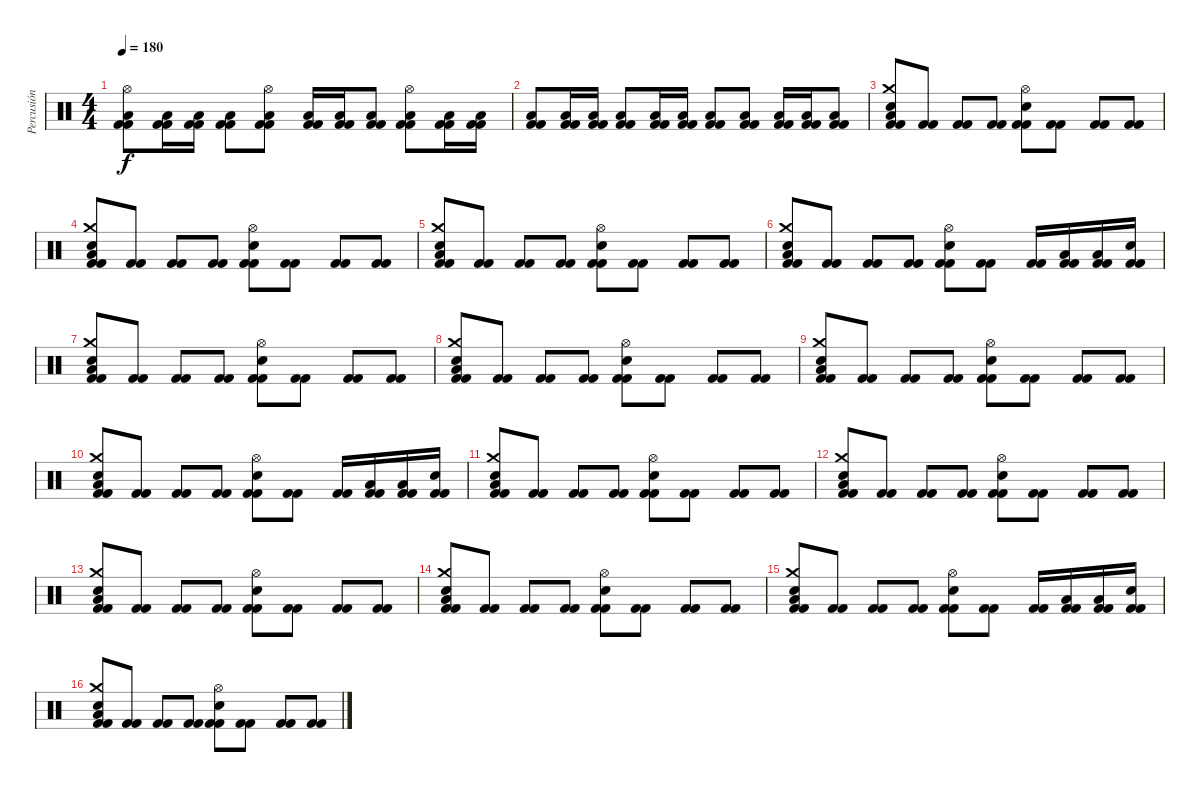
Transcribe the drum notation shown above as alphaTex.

\track ("Percusión" "Percusión") {instrument percussion}
\staff {score}
\articulation defaults
\ts (4 4)
\tempo 180
\clef neutral
\ks c
("Hi-Hat (open)" "Kick (hit) 2" "Kick (hit) 2" "Low Floor Tom (hit)").8{dy f} ("Kick (hit) 2" "Kick (hit) 2" "Low Floor Tom (hit)").16 ("Kick (hit) 2" "Kick (hit) 2" "Low Floor Tom (hit)").16 ("Kick (hit) 2" "Kick (hit) 2" "Low Floor Tom (hit)").8 ("Hi-Hat (open)" "Kick (hit) 2" "Kick (hit) 2" "Low Floor Tom (hit)").8 ("Kick (hit) 2" "Kick (hit) 2" "Low Floor Tom (hit)").16 ("Kick (hit) 2" "Kick (hit) 2" "Low Floor Tom (hit)").16 ("Kick (hit) 2" "Kick (hit) 2" "Low Floor Tom (hit)").8 ("Hi-Hat (open)" "Kick (hit) 2" "Kick (hit) 2" "Low Floor Tom (hit)").8 ("Kick (hit) 2" "Kick (hit) 2" "Low Floor Tom (hit)").16 ("Kick (hit) 2" "Kick (hit) 2" "Low Floor Tom (hit)").16 |
("Kick (hit) 2" "Kick (hit) 2" "Low Floor Tom (hit)").8 ("Kick (hit) 2" "Kick (hit) 2" "Low Floor Tom (hit)").16 ("Kick (hit) 2" "Kick (hit) 2" "Low Floor Tom (hit)").16 ("Kick (hit) 2" "Kick (hit) 2" "Low Floor Tom (hit)").8 ("Kick (hit) 2" "Kick (hit) 2" "Low Floor Tom (hit)").16 ("Kick (hit) 2" "Kick (hit) 2" "Low Floor Tom (hit)").16 ("Kick (hit) 2" "Kick (hit) 2" "Low Floor Tom (hit)").8 ("Kick (hit) 2" "Kick (hit) 2" "Low Floor Tom (hit)").8 ("Kick (hit) 2" "Kick (hit) 2" "Low Floor Tom (hit)").16 ("Kick (hit) 2" "Kick (hit) 2" "Low Floor Tom (hit)").16 ("Kick (hit) 2" "Kick (hit) 2" "Low Floor Tom (hit)").8 |
("Crash medium (hit)" "Kick (hit) 2" "Kick (hit) 2" "Snare (hit) 2" "Low Floor Tom (hit)").8 ("Kick (hit) 2" "Kick (hit) 2").8 ("Kick (hit) 2" "Kick (hit) 2").8 ("Kick (hit) 2" "Kick (hit) 2").8 ("Hi-Hat (open)" "Kick (hit) 2" "Kick (hit) 2" "Snare (hit) 2").8 ("Kick (hit) 2" "Kick (hit) 2").8 ("Kick (hit) 2" "Kick (hit) 2").8 ("Kick (hit) 2" "Kick (hit) 2").8 |
("Crash medium (hit)" "Kick (hit) 2" "Kick (hit) 2" "Snare (hit) 2" "Low Floor Tom (hit)").8 ("Kick (hit) 2" "Kick (hit) 2").8 ("Kick (hit) 2" "Kick (hit) 2").8 ("Kick (hit) 2" "Kick (hit) 2").8 ("Hi-Hat (open)" "Kick (hit) 2" "Kick (hit) 2" "Snare (hit) 2").8 ("Kick (hit) 2" "Kick (hit) 2").8 ("Kick (hit) 2" "Kick (hit) 2").8 ("Kick (hit) 2" "Kick (hit) 2").8 |
("Crash medium (hit)" "Kick (hit) 2" "Kick (hit) 2" "Snare (hit) 2" "Low Floor Tom (hit)").8 ("Kick (hit) 2" "Kick (hit) 2").8 ("Kick (hit) 2" "Kick (hit) 2").8 ("Kick (hit) 2" "Kick (hit) 2").8 ("Hi-Hat (open)" "Kick (hit) 2" "Kick (hit) 2" "Snare (hit) 2").8 ("Kick (hit) 2" "Kick (hit) 2").8 ("Kick (hit) 2" "Kick (hit) 2").8 ("Kick (hit) 2" "Kick (hit) 2").8 |
("Crash medium (hit)" "Kick (hit) 2" "Kick (hit) 2" "Snare (hit) 2" "Low Floor Tom (hit)").8 ("Kick (hit) 2" "Kick (hit) 2").8 ("Kick (hit) 2" "Kick (hit) 2").8 ("Kick (hit) 2" "Kick (hit) 2").8 ("Hi-Hat (open)" "Kick (hit) 2" "Kick (hit) 2" "Snare (hit) 2").8 ("Kick (hit) 2" "Kick (hit) 2").8 ("Kick (hit) 2" "Kick (hit) 2").16 ("Kick (hit) 2" "Kick (hit) 2" "Low Floor Tom (hit)").16 ("Kick (hit) 2" "Kick (hit) 2" "Low Floor Tom (hit)").16 ("Kick (hit) 2" "Kick (hit) 2" "Snare (hit)").16 |
("Crash medium (hit)" "Kick (hit) 2" "Kick (hit) 2" "Snare (hit) 2" "Low Floor Tom (hit)").8 ("Kick (hit) 2" "Kick (hit) 2").8 ("Kick (hit) 2" "Kick (hit) 2").8 ("Kick (hit) 2" "Kick (hit) 2").8 ("Hi-Hat (open)" "Kick (hit) 2" "Kick (hit) 2" "Snare (hit) 2").8 ("Kick (hit) 2" "Kick (hit) 2").8 ("Kick (hit) 2" "Kick (hit) 2").8 ("Kick (hit) 2" "Kick (hit) 2").8 |
("Crash medium (hit)" "Kick (hit) 2" "Kick (hit) 2" "Snare (hit) 2" "Low Floor Tom (hit)").8 ("Kick (hit) 2" "Kick (hit) 2").8 ("Kick (hit) 2" "Kick (hit) 2").8 ("Kick (hit) 2" "Kick (hit) 2").8 ("Hi-Hat (open)" "Kick (hit) 2" "Kick (hit) 2" "Snare (hit) 2").8 ("Kick (hit) 2" "Kick (hit) 2").8 ("Kick (hit) 2" "Kick (hit) 2").8 ("Kick (hit) 2" "Kick (hit) 2").8 |
("Crash medium (hit)" "Kick (hit) 2" "Kick (hit) 2" "Snare (hit) 2" "Low Floor Tom (hit)").8 ("Kick (hit) 2" "Kick (hit) 2").8 ("Kick (hit) 2" "Kick (hit) 2").8 ("Kick (hit) 2" "Kick (hit) 2").8 ("Hi-Hat (open)" "Kick (hit) 2" "Kick (hit) 2" "Snare (hit) 2").8 ("Kick (hit) 2" "Kick (hit) 2").8 ("Kick (hit) 2" "Kick (hit) 2").8 ("Kick (hit) 2" "Kick (hit) 2").8 |
("Crash medium (hit)" "Kick (hit) 2" "Kick (hit) 2" "Snare (hit) 2" "Low Floor Tom (hit)").8 ("Kick (hit) 2" "Kick (hit) 2").8 ("Kick (hit) 2" "Kick (hit) 2").8 ("Kick (hit) 2" "Kick (hit) 2").8 ("Hi-Hat (open)" "Kick (hit) 2" "Kick (hit) 2" "Snare (hit) 2").8 ("Kick (hit) 2" "Kick (hit) 2").8 ("Kick (hit) 2" "Kick (hit) 2").16 ("Kick (hit) 2" "Kick (hit) 2" "Low Floor Tom (hit)").16 ("Kick (hit) 2" "Kick (hit) 2" "Low Floor Tom (hit)").16 ("Kick (hit) 2" "Kick (hit) 2" "Snare (hit)").16 |
("Crash medium (hit)" "Kick (hit) 2" "Kick (hit) 2" "Snare (hit) 2" "Low Floor Tom (hit)").8 ("Kick (hit) 2" "Kick (hit) 2").8 ("Kick (hit) 2" "Kick (hit) 2").8 ("Kick (hit) 2" "Kick (hit) 2").8 ("Hi-Hat (open)" "Kick (hit) 2" "Kick (hit) 2" "Snare (hit) 2").8 ("Kick (hit) 2" "Kick (hit) 2").8 ("Kick (hit) 2" "Kick (hit) 2").8 ("Kick (hit) 2" "Kick (hit) 2").8 |
("Crash medium (hit)" "Kick (hit) 2" "Kick (hit) 2" "Snare (hit) 2" "Low Floor Tom (hit)").8 ("Kick (hit) 2" "Kick (hit) 2").8 ("Kick (hit) 2" "Kick (hit) 2").8 ("Kick (hit) 2" "Kick (hit) 2").8 ("Hi-Hat (open)" "Kick (hit) 2" "Kick (hit) 2" "Snare (hit) 2").8 ("Kick (hit) 2" "Kick (hit) 2").8 ("Kick (hit) 2" "Kick (hit) 2").8 ("Kick (hit) 2" "Kick (hit) 2").8 |
("Crash medium (hit)" "Kick (hit) 2" "Kick (hit) 2" "Snare (hit) 2" "Low Floor Tom (hit)").8 ("Kick (hit) 2" "Kick (hit) 2").8 ("Kick (hit) 2" "Kick (hit) 2").8 ("Kick (hit) 2" "Kick (hit) 2").8 ("Hi-Hat (open)" "Kick (hit) 2" "Kick (hit) 2" "Snare (hit) 2").8 ("Kick (hit) 2" "Kick (hit) 2").8 ("Kick (hit) 2" "Kick (hit) 2").8 ("Kick (hit) 2" "Kick (hit) 2").8 |
("Crash medium (hit)" "Kick (hit) 2" "Kick (hit) 2" "Snare (hit) 2" "Low Floor Tom (hit)").8 ("Kick (hit) 2" "Kick (hit) 2").8 ("Kick (hit) 2" "Kick (hit) 2").8 ("Kick (hit) 2" "Kick (hit) 2").8 ("Hi-Hat (open)" "Kick (hit) 2" "Kick (hit) 2" "Snare (hit) 2").8 ("Kick (hit) 2" "Kick (hit) 2").8 ("Kick (hit) 2" "Kick (hit) 2").8 ("Kick (hit) 2" "Kick (hit) 2").8 |
("Crash medium (hit)" "Kick (hit) 2" "Kick (hit) 2" "Snare (hit) 2" "Low Floor Tom (hit)").8 ("Kick (hit) 2" "Kick (hit) 2").8 ("Kick (hit) 2" "Kick (hit) 2").8 ("Kick (hit) 2" "Kick (hit) 2").8 ("Hi-Hat (open)" "Kick (hit) 2" "Kick (hit) 2" "Snare (hit) 2").8 ("Kick (hit) 2" "Kick (hit) 2").8 ("Kick (hit) 2" "Kick (hit) 2").16 ("Kick (hit) 2" "Kick (hit) 2" "Low Floor Tom (hit)").16 ("Kick (hit) 2" "Kick (hit) 2" "Low Floor Tom (hit)").16 ("Kick (hit) 2" "Kick (hit) 2" "Snare (hit)").16 |
("Crash medium (hit)" "Kick (hit) 2" "Kick (hit) 2" "Snare (hit) 2" "Low Floor Tom (hit)").8 ("Kick (hit) 2" "Kick (hit) 2").8 ("Kick (hit) 2" "Kick (hit) 2").8 ("Kick (hit) 2" "Kick (hit) 2").8 ("Hi-Hat (open)" "Kick (hit) 2" "Kick (hit) 2" "Snare (hit) 2").8 ("Kick (hit) 2" "Kick (hit) 2").8 ("Kick (hit) 2" "Kick (hit) 2").8 ("Kick (hit) 2" "Kick (hit) 2").8
